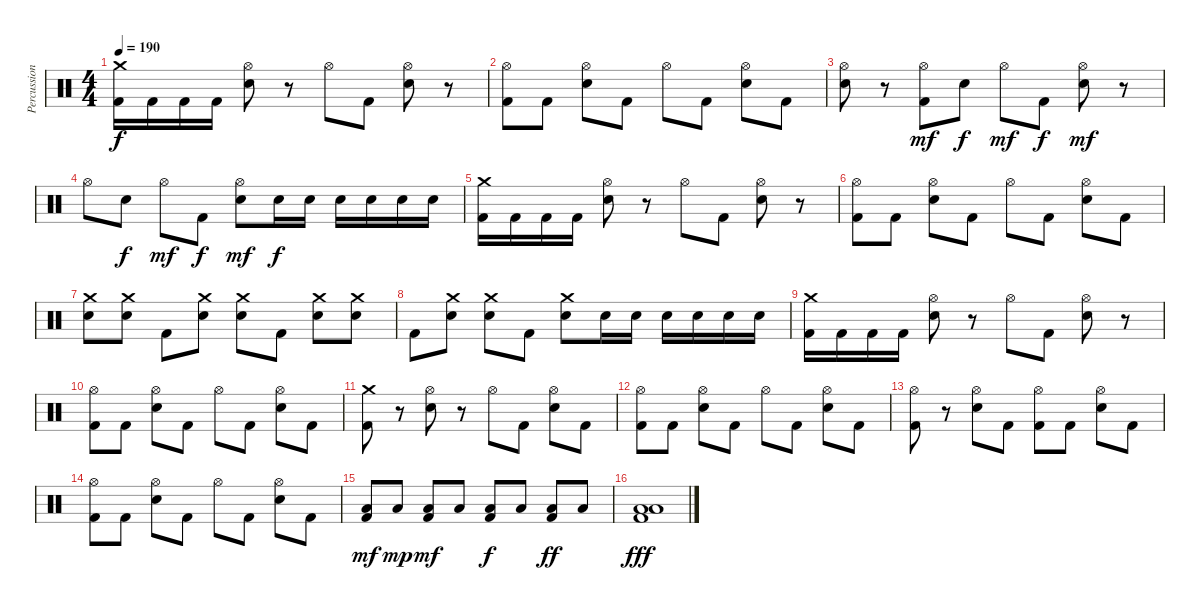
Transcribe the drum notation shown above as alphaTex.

\track ("Percussion" "Percussion") {instrument percussion}
\staff {score}
\articulation defaults
\ts (4 4)
\tempo 190
\clef neutral
\ks c
("Crash medium (hit)" "Kick (hit) 2").16{dy f} "Kick (hit) 2".16 "Kick (hit) 2".16 "Kick (hit) 2".16 ("Hi-Hat (open)" "Electric Snare (hit)").8 r.8 "Hi-Hat (open)".8 "Kick (hit) 2".8 ("Hi-Hat (open)" "Electric Snare (hit)").8 r.8 |
("Hi-Hat (open)" "Kick (hit) 2").8 "Kick (hit) 2".8 ("Hi-Hat (open)" "Electric Snare (hit)").8 "Kick (hit) 2".8 "Hi-Hat (open)".8 "Kick (hit) 2".8 ("Hi-Hat (open)" "Electric Snare (hit)").8 "Kick (hit) 2".8 |
("Hi-Hat (open)" "Electric Snare (hit)").8 r.8 ("Hi-Hat (open)" "Kick (hit) 2").8{dy mf} "Electric Snare (hit)".8{dy f} "Hi-Hat (open)".8{dy mf} "Kick (hit) 2".8{dy f} ("Hi-Hat (open)" "Electric Snare (hit)").8{dy mf} r.8 |
"Hi-Hat (open)".8 "Electric Snare (hit)".8{dy f} "Hi-Hat (open)".8{dy mf} "Kick (hit) 2".8{dy f} ("Hi-Hat (open)" "Electric Snare (hit)").8{dy mf} "Electric Snare (hit)".16{dy f} "Electric Snare (hit)".16 "Electric Snare (hit)".16 "Electric Snare (hit)".16 "Electric Snare (hit)".16 "Electric Snare (hit)".16 |
("Crash medium (hit)" "Kick (hit) 2").16 "Kick (hit) 2".16 "Kick (hit) 2".16 "Kick (hit) 2".16 ("Hi-Hat (open)" "Electric Snare (hit)").8 r.8 "Hi-Hat (open)".8 "Kick (hit) 2".8 ("Hi-Hat (open)" "Electric Snare (hit)").8 r.8 |
("Hi-Hat (open)" "Kick (hit) 2").8 "Kick (hit) 2".8 ("Hi-Hat (open)" "Electric Snare (hit)").8 "Kick (hit) 2".8 "Hi-Hat (open)".8 "Kick (hit) 2".8 ("Hi-Hat (open)" "Electric Snare (hit)").8 "Kick (hit) 2".8 |
("Crash medium (hit)" "Electric Snare (hit)").8 ("Crash medium (hit)" "Electric Snare (hit)").8 "Kick (hit) 2".8 ("Crash medium (hit)" "Electric Snare (hit)").8 ("Crash medium (hit)" "Electric Snare (hit)").8 "Kick (hit) 2".8 ("Crash medium (hit)" "Electric Snare (hit)").8 ("Crash medium (hit)" "Electric Snare (hit)").8 |
"Kick (hit) 2".8 ("Crash medium (hit)" "Electric Snare (hit)").8 ("Crash medium (hit)" "Electric Snare (hit)").8 "Kick (hit) 2".8 ("Crash medium (hit)" "Electric Snare (hit)").8 "Electric Snare (hit)".16 "Electric Snare (hit)".16 "Electric Snare (hit)".16 "Electric Snare (hit)".16 "Electric Snare (hit)".16 "Electric Snare (hit)".16 |
("Crash medium (hit)" "Kick (hit) 2").16 "Kick (hit) 2".16 "Kick (hit) 2".16 "Kick (hit) 2".16 ("Hi-Hat (open)" "Electric Snare (hit)").8 r.8 "Hi-Hat (open)".8 "Kick (hit) 2".8 ("Hi-Hat (open)" "Electric Snare (hit)").8 r.8 |
("Hi-Hat (open)" "Kick (hit) 2").8 "Kick (hit) 2".8 ("Hi-Hat (open)" "Electric Snare (hit)").8 "Kick (hit) 2".8 "Hi-Hat (open)".8 "Kick (hit) 2".8 ("Hi-Hat (open)" "Electric Snare (hit)").8 "Kick (hit) 2".8 |
("Crash medium (hit)" "Kick (hit) 2").8 r.8 ("Hi-Hat (open)" "Electric Snare (hit)").8 r.8 "Hi-Hat (open)".8 "Kick (hit) 2".8 ("Hi-Hat (open)" "Electric Snare (hit)").8 "Kick (hit) 2".8 |
("Hi-Hat (open)" "Kick (hit) 2").8 "Kick (hit) 2".8 ("Hi-Hat (open)" "Electric Snare (hit)").8 "Kick (hit) 2".8 "Hi-Hat (open)".8 "Kick (hit) 2".8 ("Hi-Hat (open)" "Electric Snare (hit)").8 "Kick (hit) 2".8 |
("Hi-Hat (open)" "Kick (hit) 2").8 r.8 ("Hi-Hat (open)" "Electric Snare (hit)").8 "Kick (hit) 2".8 ("Hi-Hat (open)" "Kick (hit) 2").8 "Kick (hit) 2".8 ("Hi-Hat (open)" "Electric Snare (hit)").8 "Kick (hit) 2".8 |
("Hi-Hat (open)" "Kick (hit) 2").8 "Kick (hit) 2".8 ("Hi-Hat (open)" "Electric Snare (hit)").8 "Kick (hit) 2".8 "Hi-Hat (open)".8 "Kick (hit) 2".8 ("Hi-Hat (open)" "Electric Snare (hit)").8 "Kick (hit) 2".8 |
("Low Tom (hit)" "Kick (hit) 2").8{dy mf} "Low Tom (hit)".8{dy mp} ("Low Tom (hit)" "Kick (hit) 2").8{dy mf} "Low Tom (hit)".8 ("Low Tom (hit)" "Kick (hit) 2").8{dy f} "Low Tom (hit)".8 ("Low Tom (hit)" "Kick (hit) 2").8{dy ff} "Low Tom (hit)".8 |
("Low Tom (hit)" "Low Tom (hit)" "Kick (hit) 2").1{dy fff}
